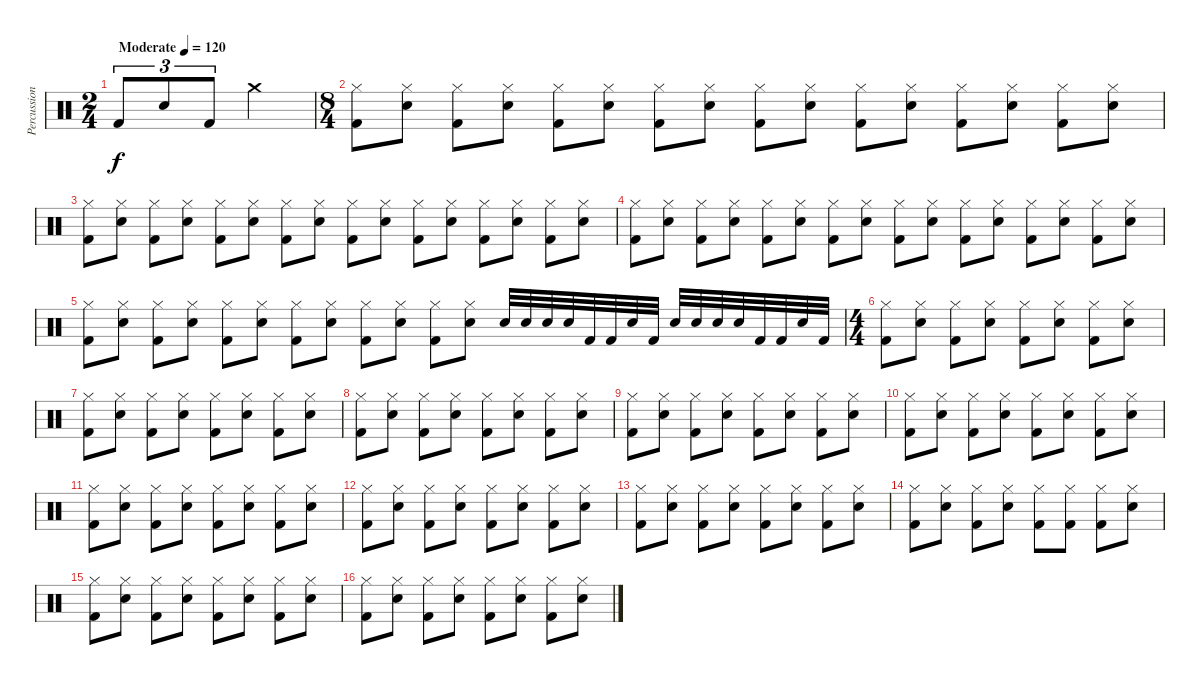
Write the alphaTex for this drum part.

\track ("Percussion" "Percussion") {instrument percussion}
\staff {score}
\articulation defaults
\ts (2 4)
\tempo (120 "Moderate")
\clef neutral
\ks c "Kick (hit) 2".8{tu (3 2) dy f} "Electric Snare (hit)".8{tu (3 2)} "Kick (hit) 2".8{tu (3 2)} "Crash medium (hit)".4
|
\ts (8 4)
("Hi-Hat (closed)" "Kick (hit) 2").8 ("Hi-Hat (closed)" "Electric Snare (hit)").8 ("Hi-Hat (closed)" "Kick (hit) 2").8 ("Hi-Hat (closed)" "Electric Snare (hit)").8 ("Hi-Hat (closed)" "Kick (hit) 2").8 ("Hi-Hat (closed)" "Electric Snare (hit)").8 ("Hi-Hat (closed)" "Kick (hit) 2").8 ("Hi-Hat (closed)" "Electric Snare (hit)").8 ("Hi-Hat (closed)" "Kick (hit) 2").8 ("Hi-Hat (closed)" "Electric Snare (hit)").8 ("Hi-Hat (closed)" "Kick (hit) 2").8 ("Hi-Hat (closed)" "Electric Snare (hit)").8 ("Hi-Hat (closed)" "Kick (hit) 2").8 ("Hi-Hat (closed)" "Electric Snare (hit)").8 ("Hi-Hat (closed)" "Kick (hit) 2").8 ("Hi-Hat (closed)" "Electric Snare (hit)").8 |
("Hi-Hat (closed)" "Kick (hit) 2").8 ("Hi-Hat (closed)" "Electric Snare (hit)").8 ("Hi-Hat (closed)" "Kick (hit) 2").8 ("Hi-Hat (closed)" "Electric Snare (hit)").8 ("Hi-Hat (closed)" "Kick (hit) 2").8 ("Hi-Hat (closed)" "Electric Snare (hit)").8 ("Hi-Hat (closed)" "Kick (hit) 2").8 ("Hi-Hat (closed)" "Electric Snare (hit)").8 ("Hi-Hat (closed)" "Kick (hit) 2").8 ("Hi-Hat (closed)" "Electric Snare (hit)").8 ("Hi-Hat (closed)" "Kick (hit) 2").8 ("Hi-Hat (closed)" "Electric Snare (hit)").8 ("Hi-Hat (closed)" "Kick (hit) 2").8 ("Hi-Hat (closed)" "Electric Snare (hit)").8 ("Hi-Hat (closed)" "Kick (hit) 2").8 ("Hi-Hat (closed)" "Electric Snare (hit)").8 |
("Hi-Hat (closed)" "Kick (hit) 2").8 ("Hi-Hat (closed)" "Electric Snare (hit)").8 ("Hi-Hat (closed)" "Kick (hit) 2").8 ("Hi-Hat (closed)" "Electric Snare (hit)").8 ("Hi-Hat (closed)" "Kick (hit) 2").8 ("Hi-Hat (closed)" "Electric Snare (hit)").8 ("Hi-Hat (closed)" "Kick (hit) 2").8 ("Hi-Hat (closed)" "Electric Snare (hit)").8 ("Hi-Hat (closed)" "Kick (hit) 2").8 ("Hi-Hat (closed)" "Electric Snare (hit)").8 ("Hi-Hat (closed)" "Kick (hit) 2").8 ("Hi-Hat (closed)" "Electric Snare (hit)").8 ("Hi-Hat (closed)" "Kick (hit) 2").8 ("Hi-Hat (closed)" "Electric Snare (hit)").8 ("Hi-Hat (closed)" "Kick (hit) 2").8 ("Hi-Hat (closed)" "Electric Snare (hit)").8 |
("Hi-Hat (closed)" "Kick (hit) 2").8 ("Hi-Hat (closed)" "Electric Snare (hit)").8 ("Hi-Hat (closed)" "Kick (hit) 2").8 ("Hi-Hat (closed)" "Electric Snare (hit)").8 ("Hi-Hat (closed)" "Kick (hit) 2").8 ("Hi-Hat (closed)" "Electric Snare (hit)").8 ("Hi-Hat (closed)" "Kick (hit) 2").8 ("Hi-Hat (closed)" "Electric Snare (hit)").8 ("Hi-Hat (closed)" "Kick (hit) 2").8 ("Hi-Hat (closed)" "Electric Snare (hit)").8 ("Hi-Hat (closed)" "Kick (hit) 2").8 ("Hi-Hat (closed)" "Electric Snare (hit)").8 "Electric Snare (hit)".32 "Electric Snare (hit)".32 "Electric Snare (hit)".32 "Electric Snare (hit)".32 "Kick (hit) 2".32 "Kick (hit) 2".32 "Electric Snare (hit)".32 "Kick (hit) 2".32 "Electric Snare (hit)".32 "Electric Snare (hit)".32 "Electric Snare (hit)".32 "Electric Snare (hit)".32 "Kick (hit) 2".32 "Kick (hit) 2".32 "Electric Snare (hit)".32 "Kick (hit) 2".32 |
\ts (4 4)
("Hi-Hat (closed)" "Kick (hit) 2").8 ("Hi-Hat (closed)" "Electric Snare (hit)").8 ("Hi-Hat (closed)" "Kick (hit) 2").8 ("Hi-Hat (closed)" "Electric Snare (hit)").8 ("Hi-Hat (closed)" "Kick (hit) 2").8 ("Hi-Hat (closed)" "Electric Snare (hit)").8 ("Hi-Hat (closed)" "Kick (hit) 2").8 ("Hi-Hat (closed)" "Electric Snare (hit)").8 |
("Hi-Hat (closed)" "Kick (hit) 2").8 ("Hi-Hat (closed)" "Electric Snare (hit)").8 ("Hi-Hat (closed)" "Kick (hit) 2").8 ("Hi-Hat (closed)" "Electric Snare (hit)").8 ("Hi-Hat (closed)" "Kick (hit) 2").8 ("Hi-Hat (closed)" "Electric Snare (hit)").8 ("Hi-Hat (closed)" "Kick (hit) 2").8 ("Hi-Hat (closed)" "Electric Snare (hit)").8 |
("Hi-Hat (closed)" "Kick (hit) 2").8 ("Hi-Hat (closed)" "Electric Snare (hit)").8 ("Hi-Hat (closed)" "Kick (hit) 2").8 ("Hi-Hat (closed)" "Electric Snare (hit)").8 ("Hi-Hat (closed)" "Kick (hit) 2").8 ("Hi-Hat (closed)" "Electric Snare (hit)").8 ("Hi-Hat (closed)" "Kick (hit) 2").8 ("Hi-Hat (closed)" "Electric Snare (hit)").8 |
("Hi-Hat (closed)" "Kick (hit) 2").8 ("Hi-Hat (closed)" "Electric Snare (hit)").8 ("Hi-Hat (closed)" "Kick (hit) 2").8 ("Hi-Hat (closed)" "Electric Snare (hit)").8 ("Hi-Hat (closed)" "Kick (hit) 2").8 ("Hi-Hat (closed)" "Electric Snare (hit)").8 ("Hi-Hat (closed)" "Kick (hit) 2").8 ("Hi-Hat (closed)" "Electric Snare (hit)").8 |
("Hi-Hat (closed)" "Kick (hit) 2").8 ("Hi-Hat (closed)" "Electric Snare (hit)").8 ("Hi-Hat (closed)" "Kick (hit) 2").8 ("Hi-Hat (closed)" "Electric Snare (hit)").8 ("Hi-Hat (closed)" "Kick (hit) 2").8 ("Hi-Hat (closed)" "Electric Snare (hit)").8 ("Hi-Hat (closed)" "Kick (hit) 2").8 ("Hi-Hat (closed)" "Electric Snare (hit)").8 |
("Hi-Hat (closed)" "Kick (hit) 2").8 ("Hi-Hat (closed)" "Electric Snare (hit)").8 ("Hi-Hat (closed)" "Kick (hit) 2").8 ("Hi-Hat (closed)" "Electric Snare (hit)").8 ("Hi-Hat (closed)" "Kick (hit) 2").8 ("Hi-Hat (closed)" "Electric Snare (hit)").8 ("Hi-Hat (closed)" "Kick (hit) 2").8 ("Hi-Hat (closed)" "Electric Snare (hit)").8 |
("Hi-Hat (closed)" "Kick (hit) 2").8 ("Hi-Hat (closed)" "Electric Snare (hit)").8 ("Hi-Hat (closed)" "Kick (hit) 2").8 ("Hi-Hat (closed)" "Electric Snare (hit)").8 ("Hi-Hat (closed)" "Kick (hit) 2").8 ("Hi-Hat (closed)" "Electric Snare (hit)").8 ("Hi-Hat (closed)" "Kick (hit) 2").8 ("Hi-Hat (closed)" "Electric Snare (hit)").8 |
("Hi-Hat (closed)" "Kick (hit) 2").8 ("Hi-Hat (closed)" "Electric Snare (hit)").8 ("Hi-Hat (closed)" "Kick (hit) 2").8 ("Hi-Hat (closed)" "Electric Snare (hit)").8 ("Hi-Hat (closed)" "Kick (hit) 2").8 ("Hi-Hat (closed)" "Electric Snare (hit)").8 ("Hi-Hat (closed)" "Kick (hit) 2").8 ("Hi-Hat (closed)" "Electric Snare (hit)").8 |
("Hi-Hat (closed)" "Kick (hit) 2").8 ("Hi-Hat (closed)" "Electric Snare (hit)").8 ("Hi-Hat (closed)" "Kick (hit) 2").8 ("Hi-Hat (closed)" "Electric Snare (hit)").8 ("Hi-Hat (closed)" "Kick (hit) 2").8 ("Hi-Hat (closed)" "Kick (hit) 2").8 ("Hi-Hat (closed)" "Kick (hit) 2").8 ("Hi-Hat (closed)" "Electric Snare (hit)").8 |
("Hi-Hat (closed)" "Kick (hit) 2").8 ("Hi-Hat (closed)" "Electric Snare (hit)").8 ("Hi-Hat (closed)" "Kick (hit) 2").8 ("Hi-Hat (closed)" "Electric Snare (hit)").8 ("Hi-Hat (closed)" "Kick (hit) 2").8 ("Hi-Hat (closed)" "Electric Snare (hit)").8 ("Hi-Hat (closed)" "Kick (hit) 2").8 ("Hi-Hat (closed)" "Electric Snare (hit)").8 |
("Hi-Hat (closed)" "Kick (hit) 2").8 ("Hi-Hat (closed)" "Electric Snare (hit)").8 ("Hi-Hat (closed)" "Kick (hit) 2").8 ("Hi-Hat (closed)" "Electric Snare (hit)").8 ("Hi-Hat (closed)" "Kick (hit) 2").8 ("Hi-Hat (closed)" "Electric Snare (hit)").8 ("Hi-Hat (closed)" "Kick (hit) 2").8 ("Hi-Hat (closed)" "Electric Snare (hit)").8
